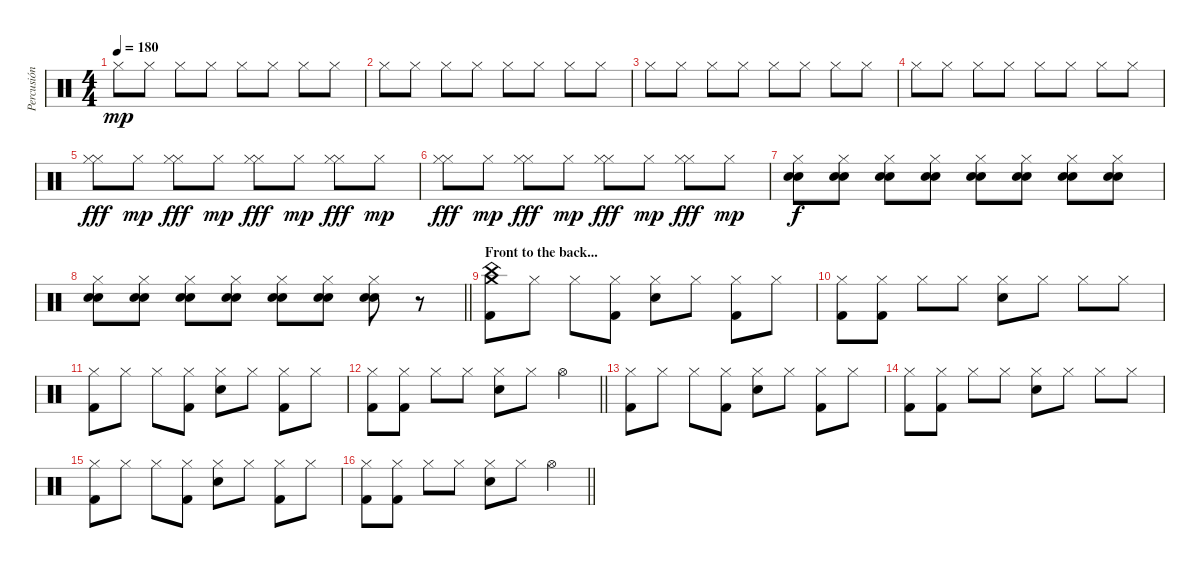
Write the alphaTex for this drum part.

\track ("Percusión" "Percusión") {instrument percussion}
\staff {score}
\articulation defaults
\ts (4 4)
\tempo 180
\clef neutral
\ks c "Hi-Hat (closed)".8{dy mp} "Hi-Hat (closed)".8 "Hi-Hat (closed)".8 "Hi-Hat (closed)".8 "Hi-Hat (closed)".8 "Hi-Hat (closed)".8 "Hi-Hat (closed)".8 "Hi-Hat (closed)".8
|
"Hi-Hat (closed)".8 "Hi-Hat (closed)".8 "Hi-Hat (closed)".8 "Hi-Hat (closed)".8 "Hi-Hat (closed)".8 "Hi-Hat (closed)".8 "Hi-Hat (closed)".8 "Hi-Hat (closed)".8 |
"Hi-Hat (closed)".8 "Hi-Hat (closed)".8 "Hi-Hat (closed)".8 "Hi-Hat (closed)".8 "Hi-Hat (closed)".8 "Hi-Hat (closed)".8 "Hi-Hat (closed)".8 "Hi-Hat (closed)".8 |
"Hi-Hat (closed)".8 "Hi-Hat (closed)".8 "Hi-Hat (closed)".8 "Hi-Hat (closed)".8 "Hi-Hat (closed)".8 "Hi-Hat (closed)".8 "Hi-Hat (closed)".8 "Hi-Hat (closed)".8 |
("Hi-Hat (closed)" "Hi-Hat (closed)").8{dy fff} "Hi-Hat (closed)".8{dy mp} ("Hi-Hat (closed)" "Hi-Hat (closed)").8{dy fff} "Hi-Hat (closed)".8{dy mp} ("Hi-Hat (closed)" "Hi-Hat (closed)").8{dy fff} "Hi-Hat (closed)".8{dy mp} ("Hi-Hat (closed)" "Hi-Hat (closed)").8{dy fff} "Hi-Hat (closed)".8{dy mp} |
("Hi-Hat (closed)" "Hi-Hat (closed)").8{dy fff} "Hi-Hat (closed)".8{dy mp} ("Hi-Hat (closed)" "Hi-Hat (closed)").8{dy fff} "Hi-Hat (closed)".8{dy mp} ("Hi-Hat (closed)" "Hi-Hat (closed)").8{dy fff} "Hi-Hat (closed)".8{dy mp} ("Hi-Hat (closed)" "Hi-Hat (closed)").8{dy fff} "Hi-Hat (closed)".8{dy mp} |
("Hi-Hat (closed)" "Snare (hit) 2" "Electric Snare (hit)").8{dy f} ("Hi-Hat (closed)" "Snare (hit) 2" "Electric Snare (hit)").8 ("Hi-Hat (closed)" "Snare (hit) 2" "Electric Snare (hit)").8 ("Hi-Hat (closed)" "Snare (hit) 2" "Electric Snare (hit)").8 ("Hi-Hat (closed)" "Snare (hit) 2" "Electric Snare (hit)").8 ("Hi-Hat (closed)" "Snare (hit) 2" "Electric Snare (hit)").8 ("Hi-Hat (closed)" "Snare (hit) 2" "Electric Snare (hit)").8 ("Hi-Hat (closed)" "Snare (hit) 2" "Electric Snare (hit)").8 |
\barLineRight lightlight
("Hi-Hat (closed)" "Snare (hit) 2" "Electric Snare (hit)").8 ("Hi-Hat (closed)" "Snare (hit) 2" "Electric Snare (hit)").8 ("Hi-Hat (closed)" "Snare (hit) 2" "Electric Snare (hit)").8 ("Hi-Hat (closed)" "Snare (hit) 2" "Electric Snare (hit)").8 ("Hi-Hat (closed)" "Snare (hit) 2" "Electric Snare (hit)").8 ("Hi-Hat (closed)" "Snare (hit) 2" "Electric Snare (hit)").8 ("Hi-Hat (closed)" "Snare (hit) 2" "Electric Snare (hit)").8 r.8 |
\section ("" "Front to the back...")
("Crash medium (hit)" "China (hit)" "Kick (hit) 2").8 "Hi-Hat (closed)".8 "Hi-Hat (closed)".8 ("Hi-Hat (closed)" "Kick (hit) 2").8 ("Hi-Hat (closed)" "Snare (hit) 2").8 "Hi-Hat (closed)".8 ("Hi-Hat (closed)" "Kick (hit) 2").8 "Hi-Hat (closed)".8 |
("Hi-Hat (closed)" "Kick (hit) 2").8 ("Hi-Hat (closed)" "Kick (hit) 2").8 "Hi-Hat (closed)".8 "Hi-Hat (closed)".8 ("Hi-Hat (closed)" "Snare (hit) 2").8 "Hi-Hat (closed)".8 "Hi-Hat (closed)".8 "Hi-Hat (closed)".8 |
("Hi-Hat (closed)" "Kick (hit) 2").8 "Hi-Hat (closed)".8 "Hi-Hat (closed)".8 ("Hi-Hat (closed)" "Kick (hit) 2").8 ("Hi-Hat (closed)" "Snare (hit) 2").8 "Hi-Hat (closed)".8 ("Hi-Hat (closed)" "Kick (hit) 2").8 "Hi-Hat (closed)".8 |
\barLineRight lightlight
("Hi-Hat (closed)" "Kick (hit) 2").8 ("Hi-Hat (closed)" "Kick (hit) 2").8 "Hi-Hat (closed)".8 "Hi-Hat (closed)".8 ("Hi-Hat (closed)" "Snare (hit) 2").8 "Hi-Hat (closed)".8 "Hi-Hat (open)".4 |
("Hi-Hat (closed)" "Kick (hit) 2").8 "Hi-Hat (closed)".8 "Hi-Hat (closed)".8 ("Hi-Hat (closed)" "Kick (hit) 2").8 ("Hi-Hat (closed)" "Snare (hit) 2").8 "Hi-Hat (closed)".8 ("Hi-Hat (closed)" "Kick (hit) 2").8 "Hi-Hat (closed)".8 |
("Hi-Hat (closed)" "Kick (hit) 2").8 ("Hi-Hat (closed)" "Kick (hit) 2").8 "Hi-Hat (closed)".8 "Hi-Hat (closed)".8 ("Hi-Hat (closed)" "Snare (hit) 2").8 "Hi-Hat (closed)".8 "Hi-Hat (closed)".8 "Hi-Hat (closed)".8 |
("Hi-Hat (closed)" "Kick (hit) 2").8 "Hi-Hat (closed)".8 "Hi-Hat (closed)".8 ("Hi-Hat (closed)" "Kick (hit) 2").8 ("Hi-Hat (closed)" "Snare (hit) 2").8 "Hi-Hat (closed)".8 ("Hi-Hat (closed)" "Kick (hit) 2").8 "Hi-Hat (closed)".8 |
\barLineRight lightlight
("Hi-Hat (closed)" "Kick (hit) 2").8 ("Hi-Hat (closed)" "Kick (hit) 2").8 "Hi-Hat (closed)".8 "Hi-Hat (closed)".8 ("Hi-Hat (closed)" "Snare (hit) 2").8 "Hi-Hat (closed)".8 "Hi-Hat (open)".4
